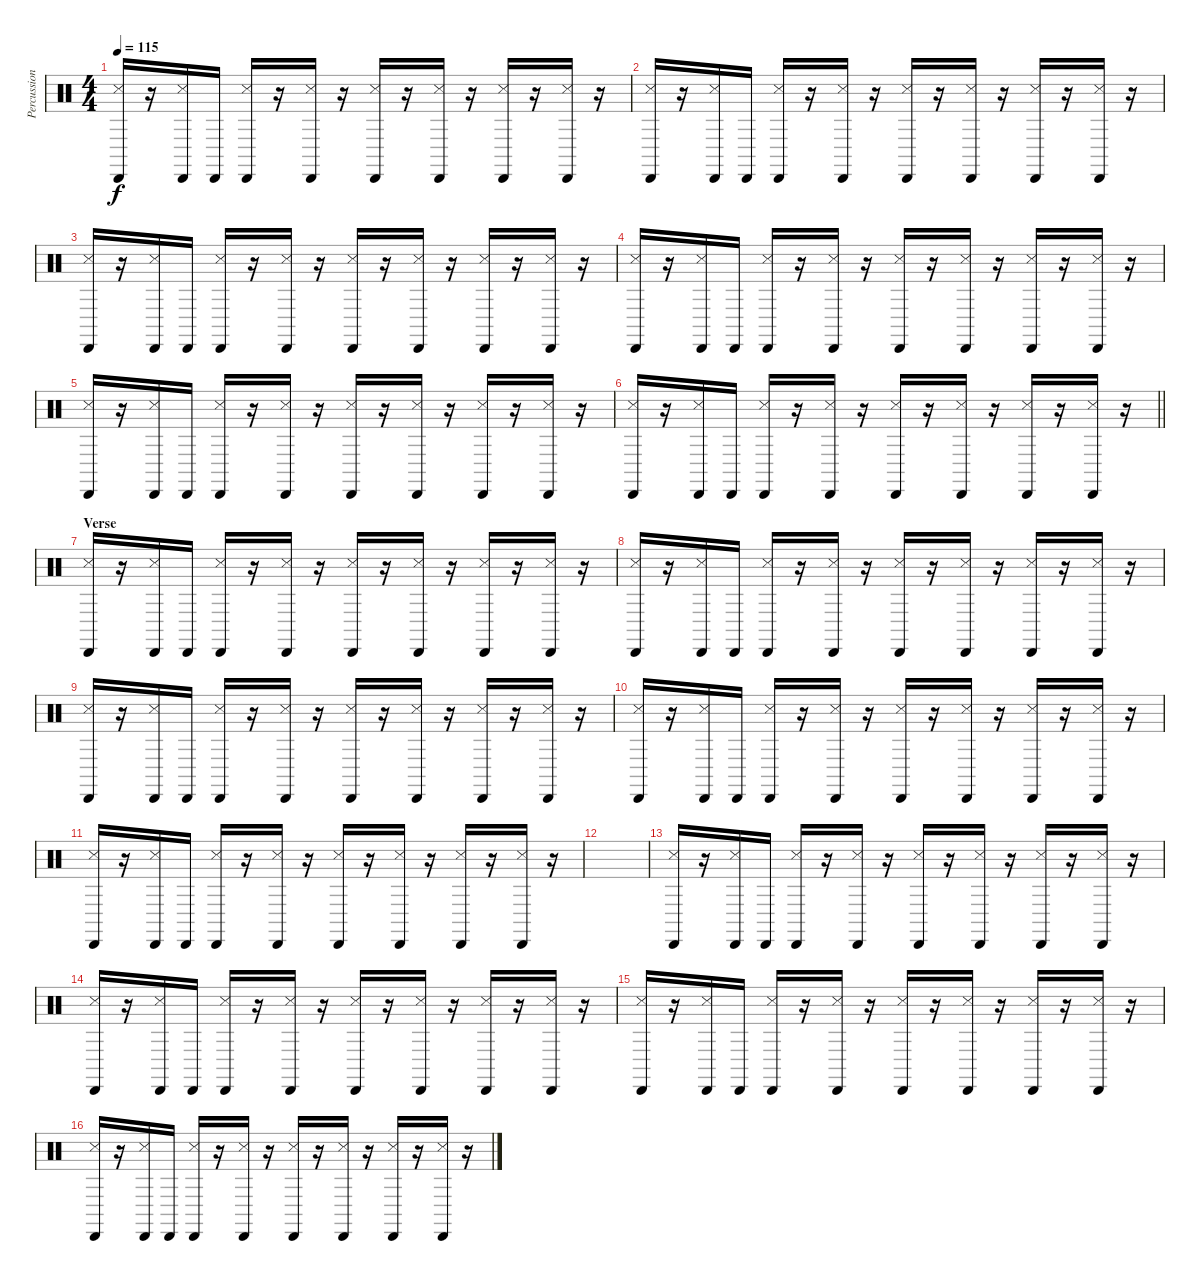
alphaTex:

\track ("Percussion" "Percussion") {instrument percussion}
\staff {score}
\articulation defaults
\ts (4 4)
\tempo 115
\clef neutral
\ks c
("Cabasa (hit)" "Snare (side stick) 3").16{dy f} r.16 ("Cabasa (hit)" "Snare (side stick) 3").16 "Cabasa (hit)".16 ("Cabasa (hit)" "Snare (side stick) 3").16 r.16 ("Cabasa (hit)" "Snare (side stick) 3").16 r.16 ("Cabasa (hit)" "Snare (side stick) 3").16 r.16 ("Cabasa (hit)" "Snare (side stick) 3").16 r.16 ("Cabasa (hit)" "Snare (side stick) 3").16 r.16 ("Cabasa (hit)" "Snare (side stick) 3").16 r.16 |
("Cabasa (hit)" "Snare (side stick) 3").16 r.16 ("Cabasa (hit)" "Snare (side stick) 3").16 "Cabasa (hit)".16 ("Cabasa (hit)" "Snare (side stick) 3").16 r.16 ("Cabasa (hit)" "Snare (side stick) 3").16 r.16 ("Cabasa (hit)" "Snare (side stick) 3").16 r.16 ("Cabasa (hit)" "Snare (side stick) 3").16 r.16 ("Cabasa (hit)" "Snare (side stick) 3").16 r.16 ("Cabasa (hit)" "Snare (side stick) 3").16 r.16 |
("Cabasa (hit)" "Snare (side stick) 3").16 r.16 ("Cabasa (hit)" "Snare (side stick) 3").16 "Cabasa (hit)".16 ("Cabasa (hit)" "Snare (side stick) 3").16 r.16 ("Cabasa (hit)" "Snare (side stick) 3").16 r.16 ("Cabasa (hit)" "Snare (side stick) 3").16 r.16 ("Cabasa (hit)" "Snare (side stick) 3").16 r.16 ("Cabasa (hit)" "Snare (side stick) 3").16 r.16 ("Cabasa (hit)" "Snare (side stick) 3").16 r.16 |
("Cabasa (hit)" "Snare (side stick) 3").16 r.16 ("Cabasa (hit)" "Snare (side stick) 3").16 "Cabasa (hit)".16 ("Cabasa (hit)" "Snare (side stick) 3").16 r.16 ("Cabasa (hit)" "Snare (side stick) 3").16 r.16 ("Cabasa (hit)" "Snare (side stick) 3").16 r.16 ("Cabasa (hit)" "Snare (side stick) 3").16 r.16 ("Cabasa (hit)" "Snare (side stick) 3").16 r.16 ("Cabasa (hit)" "Snare (side stick) 3").16 r.16 |
("Cabasa (hit)" "Snare (side stick) 3").16 r.16 ("Cabasa (hit)" "Snare (side stick) 3").16 "Cabasa (hit)".16 ("Cabasa (hit)" "Snare (side stick) 3").16 r.16 ("Cabasa (hit)" "Snare (side stick) 3").16 r.16 ("Cabasa (hit)" "Snare (side stick) 3").16 r.16 ("Cabasa (hit)" "Snare (side stick) 3").16 r.16 ("Cabasa (hit)" "Snare (side stick) 3").16 r.16 ("Cabasa (hit)" "Snare (side stick) 3").16 r.16 |
\barLineRight lightlight
("Cabasa (hit)" "Snare (side stick) 3").16 r.16 ("Cabasa (hit)" "Snare (side stick) 3").16 "Cabasa (hit)".16 ("Cabasa (hit)" "Snare (side stick) 3").16 r.16 ("Cabasa (hit)" "Snare (side stick) 3").16 r.16 ("Cabasa (hit)" "Snare (side stick) 3").16 r.16 ("Cabasa (hit)" "Snare (side stick) 3").16 r.16 ("Cabasa (hit)" "Snare (side stick) 3").16 r.16 ("Cabasa (hit)" "Snare (side stick) 3").16 r.16 |
\section ("" "Verse")
("Cabasa (hit)" "Snare (side stick) 3").16 r.16 ("Cabasa (hit)" "Snare (side stick) 3").16 "Cabasa (hit)".16 ("Cabasa (hit)" "Snare (side stick) 3").16 r.16 ("Cabasa (hit)" "Snare (side stick) 3").16 r.16 ("Cabasa (hit)" "Snare (side stick) 3").16 r.16 ("Cabasa (hit)" "Snare (side stick) 3").16 r.16 ("Cabasa (hit)" "Snare (side stick) 3").16 r.16 ("Cabasa (hit)" "Snare (side stick) 3").16 r.16 |
("Cabasa (hit)" "Snare (side stick) 3").16 r.16 ("Cabasa (hit)" "Snare (side stick) 3").16 "Cabasa (hit)".16 ("Cabasa (hit)" "Snare (side stick) 3").16 r.16 ("Cabasa (hit)" "Snare (side stick) 3").16 r.16 ("Cabasa (hit)" "Snare (side stick) 3").16 r.16 ("Cabasa (hit)" "Snare (side stick) 3").16 r.16 ("Cabasa (hit)" "Snare (side stick) 3").16 r.16 ("Cabasa (hit)" "Snare (side stick) 3").16 r.16 |
("Cabasa (hit)" "Snare (side stick) 3").16 r.16 ("Cabasa (hit)" "Snare (side stick) 3").16 "Cabasa (hit)".16 ("Cabasa (hit)" "Snare (side stick) 3").16 r.16 ("Cabasa (hit)" "Snare (side stick) 3").16 r.16 ("Cabasa (hit)" "Snare (side stick) 3").16 r.16 ("Cabasa (hit)" "Snare (side stick) 3").16 r.16 ("Cabasa (hit)" "Snare (side stick) 3").16 r.16 ("Cabasa (hit)" "Snare (side stick) 3").16 r.16 |
("Cabasa (hit)" "Snare (side stick) 3").16 r.16 ("Cabasa (hit)" "Snare (side stick) 3").16 "Cabasa (hit)".16 ("Cabasa (hit)" "Snare (side stick) 3").16 r.16 ("Cabasa (hit)" "Snare (side stick) 3").16 r.16 ("Cabasa (hit)" "Snare (side stick) 3").16 r.16 ("Cabasa (hit)" "Snare (side stick) 3").16 r.16 ("Cabasa (hit)" "Snare (side stick) 3").16 r.16 ("Cabasa (hit)" "Snare (side stick) 3").16 r.16 |
("Cabasa (hit)" "Snare (side stick) 3").16 r.16 ("Cabasa (hit)" "Snare (side stick) 3").16 "Cabasa (hit)".16 ("Cabasa (hit)" "Snare (side stick) 3").16 r.16 ("Cabasa (hit)" "Snare (side stick) 3").16 r.16 ("Cabasa (hit)" "Snare (side stick) 3").16 r.16 ("Cabasa (hit)" "Snare (side stick) 3").16 r.16 ("Cabasa (hit)" "Snare (side stick) 3").16 r.16 ("Cabasa (hit)" "Snare (side stick) 3").16 r.16 |
|
("Cabasa (hit)" "Snare (side stick) 3").16 r.16 ("Cabasa (hit)" "Snare (side stick) 3").16 "Cabasa (hit)".16 ("Cabasa (hit)" "Snare (side stick) 3").16 r.16 ("Cabasa (hit)" "Snare (side stick) 3").16 r.16 ("Cabasa (hit)" "Snare (side stick) 3").16 r.16 ("Cabasa (hit)" "Snare (side stick) 3").16 r.16 ("Cabasa (hit)" "Snare (side stick) 3").16 r.16 ("Cabasa (hit)" "Snare (side stick) 3").16 r.16 |
("Cabasa (hit)" "Snare (side stick) 3").16 r.16 ("Cabasa (hit)" "Snare (side stick) 3").16 "Cabasa (hit)".16 ("Cabasa (hit)" "Snare (side stick) 3").16 r.16 ("Cabasa (hit)" "Snare (side stick) 3").16 r.16 ("Cabasa (hit)" "Snare (side stick) 3").16 r.16 ("Cabasa (hit)" "Snare (side stick) 3").16 r.16 ("Cabasa (hit)" "Snare (side stick) 3").16 r.16 ("Cabasa (hit)" "Snare (side stick) 3").16 r.16 |
("Cabasa (hit)" "Snare (side stick) 3").16 r.16 ("Cabasa (hit)" "Snare (side stick) 3").16 "Cabasa (hit)".16 ("Cabasa (hit)" "Snare (side stick) 3").16 r.16 ("Cabasa (hit)" "Snare (side stick) 3").16 r.16 ("Cabasa (hit)" "Snare (side stick) 3").16 r.16 ("Cabasa (hit)" "Snare (side stick) 3").16 r.16 ("Cabasa (hit)" "Snare (side stick) 3").16 r.16 ("Cabasa (hit)" "Snare (side stick) 3").16 r.16 |
("Cabasa (hit)" "Snare (side stick) 3").16 r.16 ("Cabasa (hit)" "Snare (side stick) 3").16 "Cabasa (hit)".16 ("Cabasa (hit)" "Snare (side stick) 3").16 r.16 ("Cabasa (hit)" "Snare (side stick) 3").16 r.16 ("Cabasa (hit)" "Snare (side stick) 3").16 r.16 ("Cabasa (hit)" "Snare (side stick) 3").16 r.16 ("Cabasa (hit)" "Snare (side stick) 3").16 r.16 ("Cabasa (hit)" "Snare (side stick) 3").16 r.16
